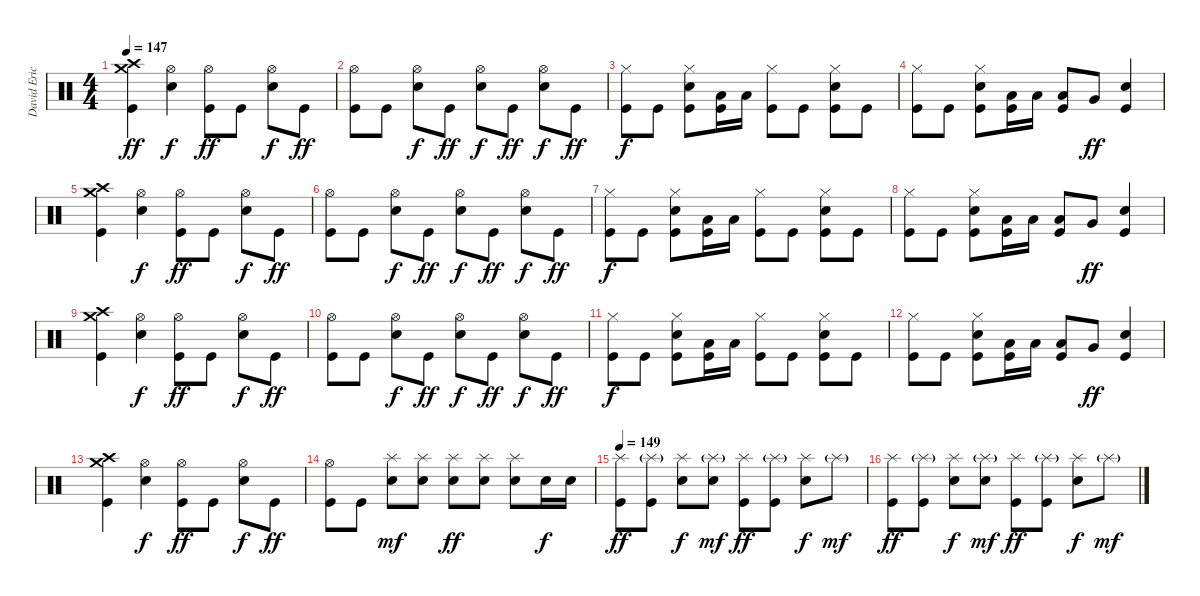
\track ("David Eric Grohl" "David Eric") {instrument percussion}
\staff {score}
\articulation defaults
\ts (4 4)
\tempo 147
\clef neutral
\ks c
("Crash medium (hit)" "Crash high (hit)" "Kick (hit)").4{dy ff} ("Hi-Hat (open)" "Snare (hit) 2").4{dy f} ("Hi-Hat (open)" "Kick (hit)").8{dy ff} "Kick (hit)".8 ("Hi-Hat (open)" "Snare (hit) 2").8{dy f} "Kick (hit)".8{dy ff} |
("Hi-Hat (open)" "Kick (hit)").8 "Kick (hit)".8 ("Hi-Hat (open)" "Snare (hit) 2").8{dy f} "Kick (hit)".8{dy ff} ("Hi-Hat (open)" "Snare (hit) 2").8{dy f} "Kick (hit)".8{dy ff} ("Hi-Hat (open)" "Snare (hit) 2").8{dy f} "Kick (hit)".8{dy ff} |
("Hi-Hat (closed)" "Kick (hit)").8{dy f} "Kick (hit)".8 ("Snare (hit) 2" "Hi-Hat (closed)" "Kick (hit)").8 ("Low Tom (hit)" "Kick (hit)").16 "Low Tom (hit)".16 ("Hi-Hat (closed)" "Kick (hit)").8 "Kick (hit)".8 ("Snare (hit) 2" "Hi-Hat (closed)" "Kick (hit)").8 "Kick (hit)".8 |
("Hi-Hat (closed)" "Kick (hit)").8 "Kick (hit)".8 ("Snare (hit) 2" "Hi-Hat (closed)" "Kick (hit)").8 ("Low Tom (hit)" "Kick (hit)").16 "Low Tom (hit)".16 ("Low Tom (hit)" "Kick (hit)").8 "Very Low Tom (hit)".8{dy ff} ("Snare (hit) 2" "Kick (hit)").4 |
("Crash medium (hit)" "Crash high (hit)" "Kick (hit)").4 ("Hi-Hat (open)" "Snare (hit) 2").4{dy f} ("Hi-Hat (open)" "Kick (hit)").8{dy ff} "Kick (hit)".8 ("Hi-Hat (open)" "Snare (hit) 2").8{dy f} "Kick (hit)".8{dy ff} |
("Hi-Hat (open)" "Kick (hit)").8 "Kick (hit)".8 ("Hi-Hat (open)" "Snare (hit) 2").8{dy f} "Kick (hit)".8{dy ff} ("Hi-Hat (open)" "Snare (hit) 2").8{dy f} "Kick (hit)".8{dy ff} ("Hi-Hat (open)" "Snare (hit) 2").8{dy f} "Kick (hit)".8{dy ff} |
("Hi-Hat (closed)" "Kick (hit)").8{dy f} "Kick (hit)".8 ("Snare (hit) 2" "Hi-Hat (closed)" "Kick (hit)").8 ("Low Tom (hit)" "Kick (hit)").16 "Low Tom (hit)".16 ("Hi-Hat (closed)" "Kick (hit)").8 "Kick (hit)".8 ("Snare (hit) 2" "Hi-Hat (closed)" "Kick (hit)").8 "Kick (hit)".8 |
("Hi-Hat (closed)" "Kick (hit)").8 "Kick (hit)".8 ("Snare (hit) 2" "Hi-Hat (closed)" "Kick (hit)").8 ("Low Tom (hit)" "Kick (hit)").16 "Low Tom (hit)".16 ("Low Tom (hit)" "Kick (hit)").8 "Very Low Tom (hit)".8{dy ff} ("Snare (hit) 2" "Kick (hit)").4 |
("Crash medium (hit)" "Crash high (hit)" "Kick (hit)").4 ("Hi-Hat (open)" "Snare (hit) 2").4{dy f} ("Hi-Hat (open)" "Kick (hit)").8{dy ff} "Kick (hit)".8 ("Hi-Hat (open)" "Snare (hit) 2").8{dy f} "Kick (hit)".8{dy ff} |
("Hi-Hat (open)" "Kick (hit)").8 "Kick (hit)".8 ("Hi-Hat (open)" "Snare (hit) 2").8{dy f} "Kick (hit)".8{dy ff} ("Hi-Hat (open)" "Snare (hit) 2").8{dy f} "Kick (hit)".8{dy ff} ("Hi-Hat (open)" "Snare (hit) 2").8{dy f} "Kick (hit)".8{dy ff} |
("Hi-Hat (closed)" "Kick (hit)").8{dy f} "Kick (hit)".8 ("Snare (hit) 2" "Hi-Hat (closed)" "Kick (hit)").8 ("Low Tom (hit)" "Kick (hit)").16 "Low Tom (hit)".16 ("Hi-Hat (closed)" "Kick (hit)").8 "Kick (hit)".8 ("Snare (hit) 2" "Hi-Hat (closed)" "Kick (hit)").8 "Kick (hit)".8 |
("Hi-Hat (closed)" "Kick (hit)").8 "Kick (hit)".8 ("Snare (hit) 2" "Hi-Hat (closed)" "Kick (hit)").8 ("Low Tom (hit)" "Kick (hit)").16 "Low Tom (hit)".16 ("Low Tom (hit)" "Kick (hit)").8 "Very Low Tom (hit)".8{dy ff} ("Snare (hit) 2" "Kick (hit)").4 |
("Crash medium (hit)" "Crash high (hit)" "Kick (hit)").4 ("Hi-Hat (open)" "Snare (hit) 2").4{dy f} ("Hi-Hat (open)" "Kick (hit)").8{dy ff} "Kick (hit)".8 ("Hi-Hat (open)" "Snare (hit) 2").8{dy f} "Kick (hit)".8{dy ff} |
("Hi-Hat (open)" "Kick (hit)").8 "Kick (hit)".8 ("Splash (hit)" "Snare (hit) 2").8{dy mf} ("Splash (hit)" "Snare (hit) 2").8 ("Splash (hit)" "Snare (hit) 2").8{dy ff} ("Splash (hit)" "Snare (hit) 2").8 ("Splash (hit)" "Snare (hit) 2").8 "Snare (hit) 2".16{dy f} "Snare (hit) 2".16 |
\tempo 149
("Splash (hit)" "Kick (hit)").8{dy ff} ("Splash (hit)"{g} "Kick (hit)").8 ("Splash (hit)" "Snare (hit) 2").8{dy f} ("Splash (hit)"{g} "Snare (hit) 2").8{dy mf} ("Splash (hit)" "Kick (hit)").8{dy ff} ("Splash (hit)"{g} "Kick (hit)").8 ("Splash (hit)" "Snare (hit) 2").8{dy f} "Splash (hit)"{g}.8{dy mf} |
("Splash (hit)" "Kick (hit)").8{dy ff} ("Splash (hit)"{g} "Kick (hit)").8 ("Splash (hit)" "Snare (hit) 2").8{dy f} ("Splash (hit)"{g} "Snare (hit) 2").8{dy mf} ("Splash (hit)" "Kick (hit)").8{dy ff} ("Splash (hit)"{g} "Kick (hit)").8 ("Splash (hit)" "Snare (hit) 2").8{dy f} "Splash (hit)"{g}.8{dy mf}
